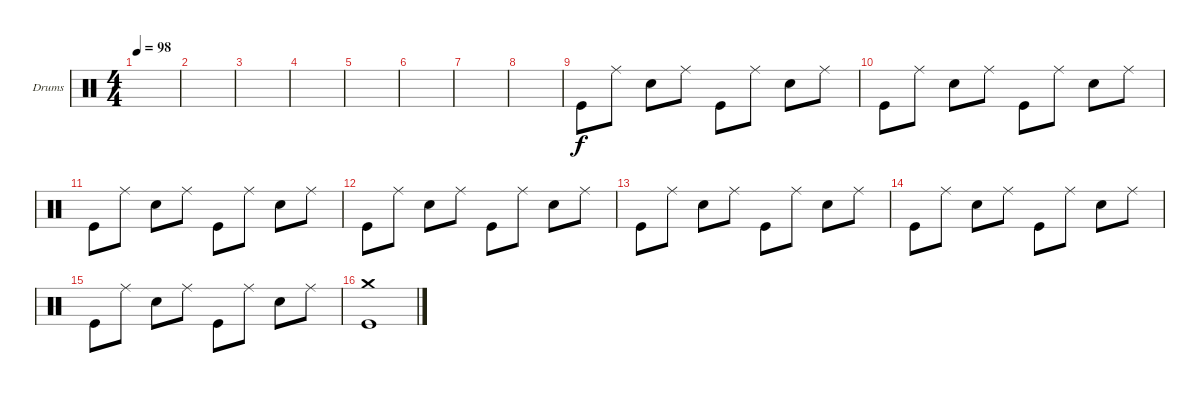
\defaultSystemsLayout 4
\bracketExtendMode groupsimilarinstruments
\firstSystemTrackNameOrientation horizontal
\otherSystemsTrackNameOrientation horizontal
\track ("Drumkit" "Drums") {instrument percussion}
\staff {score}
\articulation defaults
\ts (4 4)
\tempo 98
\clef neutral
\scale
0.474178
\ks c
|
\scale
0.262911 |
\scale
0.262911 |
\scale
0.333333 |
\scale
0.333333 |
\scale
0.333333 |
\scale
0.333333 |
\scale
0.333333 |
\scale
0.333333 "Kick (hit)".8 "Ride (middle)".8 "Snare (hit) 2".8 "Ride (middle)".8 "Kick (hit)".8 "Ride (middle)".8 "Snare (hit) 2".8 "Ride (middle)".8 |
\scale
0.333333 "Kick (hit)".8 "Ride (middle)".8 "Snare (hit) 2".8 "Ride (middle)".8 "Kick (hit)".8 "Ride (middle)".8 "Snare (hit) 2".8 "Ride (middle)".8 |
\scale
0.333333 "Kick (hit)".8 "Ride (middle)".8 "Snare (hit) 2".8 "Ride (middle)".8 "Kick (hit)".8 "Ride (middle)".8 "Snare (hit) 2".8 "Ride (middle)".8 |
\scale
0.333333 "Kick (hit)".8 "Ride (middle)".8 "Snare (hit) 2".8 "Ride (middle)".8 "Kick (hit)".8 "Ride (middle)".8 "Snare (hit) 2".8 "Ride (middle)".8 |
\scale
0.333333 "Kick (hit)".8 "Ride (middle)".8 "Snare (hit) 2".8 "Ride (middle)".8 "Kick (hit)".8 "Ride (middle)".8 "Snare (hit) 2".8 "Ride (middle)".8 |
\scale
0.333333 "Kick (hit)".8 "Ride (middle)".8 "Snare (hit) 2".8 "Ride (middle)".8 "Kick (hit)".8 "Ride (middle)".8 "Snare (hit) 2".8 "Ride (middle)".8 |
\scale
0.333333 "Kick (hit)".8 "Ride (middle)".8 "Snare (hit) 2".8 "Ride (middle)".8 "Kick (hit)".8 "Ride (middle)".8 "Snare (hit) 2".8 "Ride (middle)".8 |
("Kick (hit)" "Crash medium (hit)").1
